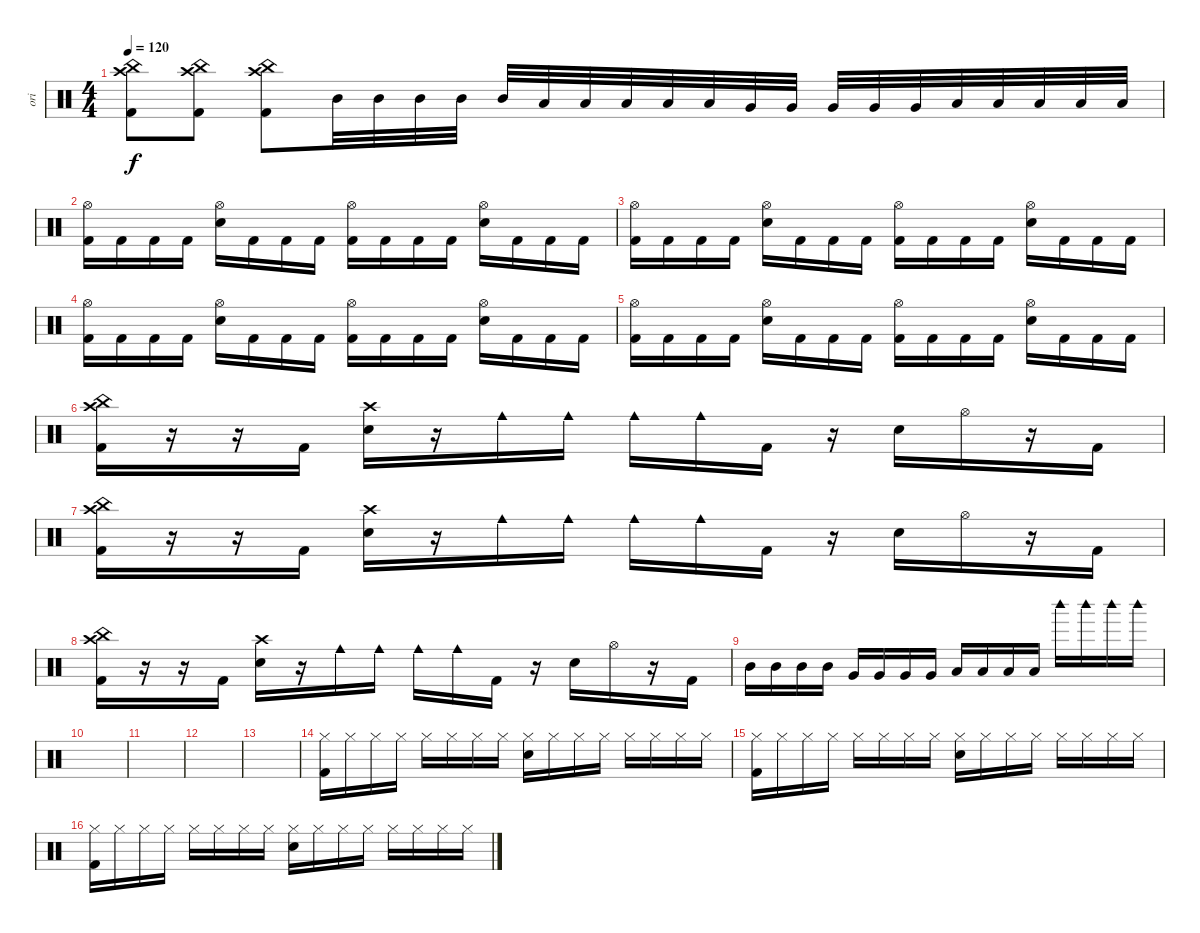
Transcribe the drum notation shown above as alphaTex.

\track ("ori" "ori") {instrument percussion}
\staff {score}
\articulation defaults
\ts (4 4)
\tempo 120
\clef neutral
\ks c
("Crash high (hit)" "Kick (hit) 2" "China (hit)").8{dy f} ("Crash high (hit)" "Kick (hit) 2" "China (hit)").8 ("Crash high (hit)" "Kick (hit) 2" "China (hit)").8 "Mid Tom (hit)".32 "Mid Tom (hit)".32 "Mid Tom (hit)".32 "Mid Tom (hit)".32 "Mid Tom (hit)".32 "Low Tom (hit)".32 "Low Tom (hit)".32 "Low Tom (hit)".32 "Low Tom (hit)".32 "Low Tom (hit)".32 "Very Low Tom (hit)".32 "Very Low Tom (hit)".32 "Very Low Tom (hit)".32 "Very Low Tom (hit)".32 "Very Low Tom (hit)".32 "Low Floor Tom (hit)".32 "Low Floor Tom (hit)".32 "Low Floor Tom (hit)".32 "Low Floor Tom (hit)".32 "Low Floor Tom (hit)".32 |
("Kick (hit) 2" "Hi-Hat (open)").16 "Kick (hit) 2".16 "Kick (hit) 2".16 "Kick (hit) 2".16 ("Electric Snare (hit)" "Hi-Hat (open)").16 "Kick (hit) 2".16 "Kick (hit) 2".16 "Kick (hit) 2".16 ("Kick (hit) 2" "Hi-Hat (open)").16 "Kick (hit) 2".16 "Kick (hit) 2".16 "Kick (hit) 2".16 ("Electric Snare (hit)" "Hi-Hat (open)").16 "Kick (hit) 2".16 "Kick (hit) 2".16 "Kick (hit) 2".16 |
("Kick (hit) 2" "Hi-Hat (open)").16 "Kick (hit) 2".16 "Kick (hit) 2".16 "Kick (hit) 2".16 ("Electric Snare (hit)" "Hi-Hat (open)").16 "Kick (hit) 2".16 "Kick (hit) 2".16 "Kick (hit) 2".16 ("Kick (hit) 2" "Hi-Hat (open)").16 "Kick (hit) 2".16 "Kick (hit) 2".16 "Kick (hit) 2".16 ("Electric Snare (hit)" "Hi-Hat (open)").16 "Kick (hit) 2".16 "Kick (hit) 2".16 "Kick (hit) 2".16 |
("Kick (hit) 2" "Hi-Hat (open)").16 "Kick (hit) 2".16 "Kick (hit) 2".16 "Kick (hit) 2".16 ("Electric Snare (hit)" "Hi-Hat (open)").16 "Kick (hit) 2".16 "Kick (hit) 2".16 "Kick (hit) 2".16 ("Kick (hit) 2" "Hi-Hat (open)").16 "Kick (hit) 2".16 "Kick (hit) 2".16 "Kick (hit) 2".16 ("Electric Snare (hit)" "Hi-Hat (open)").16 "Kick (hit) 2".16 "Kick (hit) 2".16 "Kick (hit) 2".16 |
("Kick (hit) 2" "Hi-Hat (open)").16 "Kick (hit) 2".16 "Kick (hit) 2".16 "Kick (hit) 2".16 ("Electric Snare (hit)" "Hi-Hat (open)").16 "Kick (hit) 2".16 "Kick (hit) 2".16 "Kick (hit) 2".16 ("Kick (hit) 2" "Hi-Hat (open)").16 "Kick (hit) 2".16 "Kick (hit) 2".16 "Kick (hit) 2".16 ("Electric Snare (hit)" "Hi-Hat (open)").16 "Kick (hit) 2".16 "Kick (hit) 2".16 "Kick (hit) 2".16 |
("Crash high (hit)" "China (hit)" "Kick (hit) 2").16 r.16 r.16 "Kick (hit) 2".16 ("Crash high (hit)" "Electric Snare (hit)").16 r.16 "Cowbell medium (hit)".16 "Cowbell medium (hit)".16 "Cowbell medium (hit)".16 "Cowbell medium (hit)".16 "Kick (hit) 2".16 r.16 "Electric Snare (hit)".16 "Hi-Hat (open)".16 r.16 "Kick (hit) 2".16 |
("Crash high (hit)" "China (hit)" "Kick (hit) 2").16 r.16 r.16 "Kick (hit) 2".16 ("Crash high (hit)" "Electric Snare (hit)").16 r.16 "Cowbell medium (hit)".16 "Cowbell medium (hit)".16 "Cowbell medium (hit)".16 "Cowbell medium (hit)".16 "Kick (hit) 2".16 r.16 "Electric Snare (hit)".16 "Hi-Hat (open)".16 r.16 "Kick (hit) 2".16 |
("Crash high (hit)" "China (hit)" "Kick (hit) 2").16 r.16 r.16 "Kick (hit) 2".16 ("Crash high (hit)" "Electric Snare (hit)").16 r.16 "Cowbell medium (hit)".16 "Cowbell medium (hit)".16 "Cowbell medium (hit)".16 "Cowbell medium (hit)".16 "Kick (hit) 2".16 r.16 "Electric Snare (hit)".16 "Hi-Hat (open)".16 r.16 "Kick (hit) 2".16 |
"Mid Tom (hit)".16 "Mid Tom (hit)".16 "Mid Tom (hit)".16 "Mid Tom (hit)".16 "Very Low Tom (hit)".16 "Very Low Tom (hit)".16 "Very Low Tom (hit)".16 "Very Low Tom (hit)".16 "Low Floor Tom (hit)".16 "Low Floor Tom (hit)".16 "Low Floor Tom (hit)".16 "Low Floor Tom (hit)".16 "Woodblock high (hit)".16 "Woodblock high (hit)".16 "Woodblock high (hit)".16 "Woodblock high (hit)".16 |
|
|
|
|
("Kick (hit) 2" "Hi-Hat (closed)").16 "Hi-Hat (closed)".16 "Hi-Hat (closed)".16 "Hi-Hat (closed)".16 "Hi-Hat (closed)".16 "Hi-Hat (closed)".16 "Hi-Hat (closed)".16 "Hi-Hat (closed)".16 ("Electric Snare (hit)" "Hi-Hat (closed)").16 "Hi-Hat (closed)".16 "Hi-Hat (closed)".16 "Hi-Hat (closed)".16 "Hi-Hat (closed)".16 "Hi-Hat (closed)".16 "Hi-Hat (closed)".16 "Hi-Hat (closed)".16 |
("Kick (hit) 2" "Hi-Hat (closed)").16 "Hi-Hat (closed)".16 "Hi-Hat (closed)".16 "Hi-Hat (closed)".16 "Hi-Hat (closed)".16 "Hi-Hat (closed)".16 "Hi-Hat (closed)".16 "Hi-Hat (closed)".16 ("Electric Snare (hit)" "Hi-Hat (closed)").16 "Hi-Hat (closed)".16 "Hi-Hat (closed)".16 "Hi-Hat (closed)".16 "Hi-Hat (closed)".16 "Hi-Hat (closed)".16 "Hi-Hat (closed)".16 "Hi-Hat (closed)".16 |
("Kick (hit) 2" "Hi-Hat (closed)").16 "Hi-Hat (closed)".16 "Hi-Hat (closed)".16 "Hi-Hat (closed)".16 "Hi-Hat (closed)".16 "Hi-Hat (closed)".16 "Hi-Hat (closed)".16 "Hi-Hat (closed)".16 ("Electric Snare (hit)" "Hi-Hat (closed)").16 "Hi-Hat (closed)".16 "Hi-Hat (closed)".16 "Hi-Hat (closed)".16 "Hi-Hat (closed)".16 "Hi-Hat (closed)".16 "Hi-Hat (closed)".16 "Hi-Hat (closed)".16
